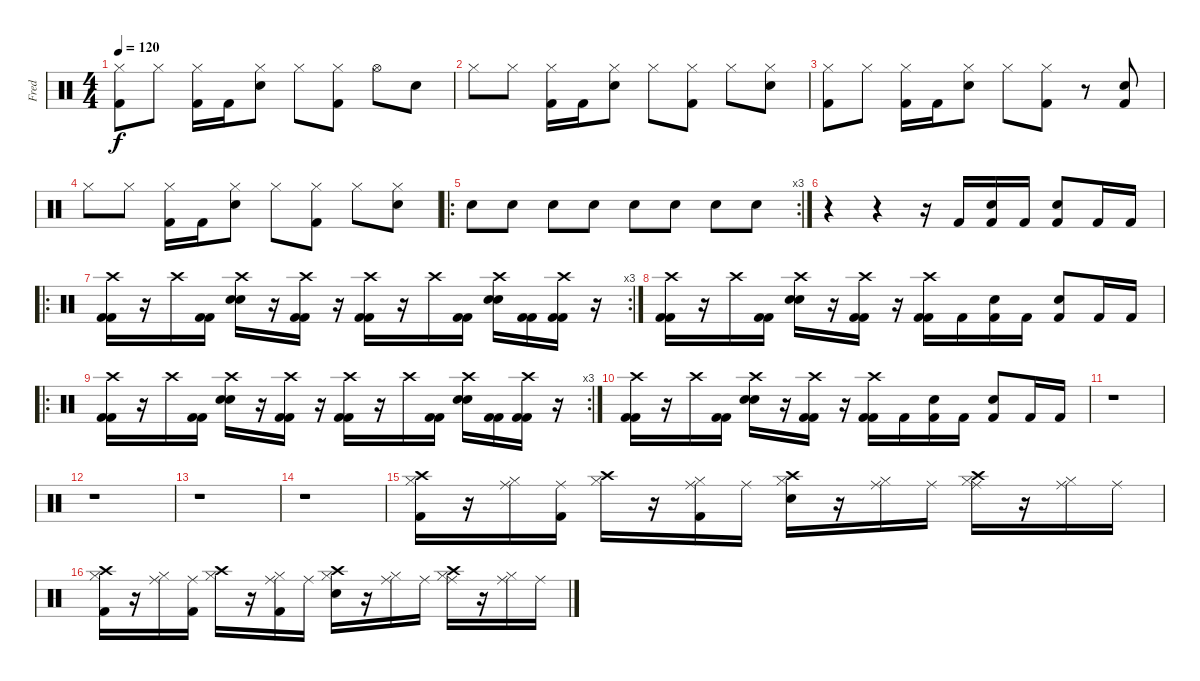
\track ("Fred " "Fred ") {instrument percussion}
\staff {score}
\articulation defaults
\ts (4 4)
\tempo 120
\clef neutral
\ks c
("Hi-Hat (closed)" "Kick (hit) 2").8{dy f} "Hi-Hat (closed)".8 ("Hi-Hat (closed)" "Kick (hit) 2").16 "Kick (hit) 2".16 ("Hi-Hat (closed)" "Electric Snare (hit)").8 "Hi-Hat (closed)".8 ("Hi-Hat (closed)" "Kick (hit) 2").8 "Hi-Hat (open)".8 "Electric Snare (hit)".8 |
"Hi-Hat (closed)".8 "Hi-Hat (closed)".8 ("Hi-Hat (closed)" "Kick (hit) 2").16 "Kick (hit) 2".16 ("Hi-Hat (closed)" "Electric Snare (hit)").8 "Hi-Hat (closed)".8 ("Hi-Hat (closed)" "Kick (hit) 2").8 "Hi-Hat (closed)".8 ("Hi-Hat (closed)" "Electric Snare (hit)").8 |
("Hi-Hat (closed)" "Kick (hit) 2").8 "Hi-Hat (closed)".8 ("Hi-Hat (closed)" "Kick (hit) 2").16 "Kick (hit) 2".16 ("Hi-Hat (closed)" "Electric Snare (hit)").8 "Hi-Hat (closed)".8 ("Hi-Hat (closed)" "Kick (hit) 2").8 r.8 ("Electric Snare (hit)" "Kick (hit) 2").8 |
"Hi-Hat (closed)".8 "Hi-Hat (closed)".8 ("Hi-Hat (closed)" "Kick (hit) 2").16 "Kick (hit) 2".16 ("Hi-Hat (closed)" "Electric Snare (hit)").8 "Hi-Hat (closed)".8 ("Hi-Hat (closed)" "Kick (hit) 2").8 "Hi-Hat (closed)".8 ("Hi-Hat (closed)" "Electric Snare (hit)").8 |
\ro
\rc 3 "Snare (hit) 2".8 "Snare (hit) 2".8 "Snare (hit) 2".8 "Snare (hit) 2".8 "Snare (hit) 2".8 "Snare (hit) 2".8 "Snare (hit) 2".8 "Snare (hit) 2".8
|
r.4 r.4 r.16 "Kick (hit) 2".16 ("Kick (hit) 2" "Electric Snare (hit)").16 "Kick (hit) 2".16 ("Kick (hit) 2" "Electric Snare (hit)").8 "Kick (hit) 2".16 "Kick (hit) 2".16 |
\ro
\rc 3
("Crash high (hit)" "Kick (hit) 2" "Kick (hit) 2").16 r.16 "Crash high (hit)".16 ("Kick (hit) 2" "Kick (hit) 2").16 ("Crash high (hit)" "Electric Snare (hit)" "Electric Snare (hit)").16 r.16 ("Crash high (hit)" "Kick (hit) 2" "Kick (hit) 2").16 r.16 ("Crash high (hit)" "Kick (hit) 2" "Kick (hit) 2").16 r.16 "Crash high (hit)".16 ("Kick (hit) 2" "Kick (hit) 2").16 ("Crash high (hit)" "Electric Snare (hit)" "Electric Snare (hit)").16 ("Kick (hit) 2" "Kick (hit) 2").16 ("Crash high (hit)" "Kick (hit) 2" "Kick (hit) 2").16 r.16 |
("Crash high (hit)" "Kick (hit) 2" "Kick (hit) 2").16 r.16 "Crash high (hit)".16 ("Kick (hit) 2" "Kick (hit) 2").16 ("Crash high (hit)" "Electric Snare (hit)" "Electric Snare (hit)").16 r.16 ("Crash high (hit)" "Kick (hit) 2" "Kick (hit) 2").16 r.16 ("Crash high (hit)" "Kick (hit) 2" "Kick (hit) 2").16 "Kick (hit) 2".16 ("Kick (hit) 2" "Electric Snare (hit)").16 "Kick (hit) 2".16 ("Kick (hit) 2" "Electric Snare (hit)").8 "Kick (hit) 2".16 "Kick (hit) 2".16 |
\ro
\rc 3
("Crash high (hit)" "Kick (hit) 2" "Kick (hit) 2").16 r.16 "Crash high (hit)".16 ("Kick (hit) 2" "Kick (hit) 2").16 ("Crash high (hit)" "Electric Snare (hit)" "Electric Snare (hit)").16 r.16 ("Crash high (hit)" "Kick (hit) 2" "Kick (hit) 2").16 r.16 ("Crash high (hit)" "Kick (hit) 2" "Kick (hit) 2").16 r.16 "Crash high (hit)".16 ("Kick (hit) 2" "Kick (hit) 2").16 ("Crash high (hit)" "Electric Snare (hit)" "Electric Snare (hit)").16 ("Kick (hit) 2" "Kick (hit) 2").16 ("Crash high (hit)" "Kick (hit) 2" "Kick (hit) 2").16 r.16 |
("Crash high (hit)" "Kick (hit) 2" "Kick (hit) 2").16 r.16 "Crash high (hit)".16 ("Kick (hit) 2" "Kick (hit) 2").16 ("Crash high (hit)" "Electric Snare (hit)" "Electric Snare (hit)").16 r.16 ("Crash high (hit)" "Kick (hit) 2" "Kick (hit) 2").16 r.16 ("Crash high (hit)" "Kick (hit) 2" "Kick (hit) 2").16 "Kick (hit) 2".16 ("Kick (hit) 2" "Electric Snare (hit)").16 "Kick (hit) 2".16 ("Kick (hit) 2" "Electric Snare (hit)").8 "Kick (hit) 2".16 "Kick (hit) 2".16 |
r.1 |
r.1 |
r.1 |
r.1 |
("Hi-Hat (closed)" "Crash high (hit)" "Kick (hit) 2").16 r.16 ("Hi-Hat (closed)" "Ride (middle)").16 ("Ride (middle)" "Kick (hit) 2").16 ("Hi-Hat (closed)" "Crash high (hit)").16 r.16 ("Hi-Hat (closed)" "Ride (middle)" "Kick (hit) 2").16 "Ride (middle)".16 ("Hi-Hat (closed)" "Crash high (hit)" "Electric Snare (hit)").16 r.16 ("Hi-Hat (closed)" "Ride (middle)").16 "Ride (middle)".16 ("Hi-Hat (closed)" "Crash high (hit)" "Ride (middle)").16 r.16 ("Hi-Hat (closed)" "Ride (middle)").16 "Ride (middle)".16 |
("Hi-Hat (closed)" "Crash high (hit)" "Kick (hit) 2").16 r.16 ("Hi-Hat (closed)" "Ride (middle)").16 ("Ride (middle)" "Kick (hit) 2").16 ("Hi-Hat (closed)" "Crash high (hit)").16 r.16 ("Hi-Hat (closed)" "Ride (middle)" "Kick (hit) 2").16 "Ride (middle)".16 ("Hi-Hat (closed)" "Crash high (hit)" "Electric Snare (hit)").16 r.16 ("Hi-Hat (closed)" "Ride (middle)").16 "Ride (middle)".16 ("Hi-Hat (closed)" "Crash high (hit)" "Ride (middle)").16 r.16 ("Hi-Hat (closed)" "Ride (middle)").16 "Ride (middle)".16
